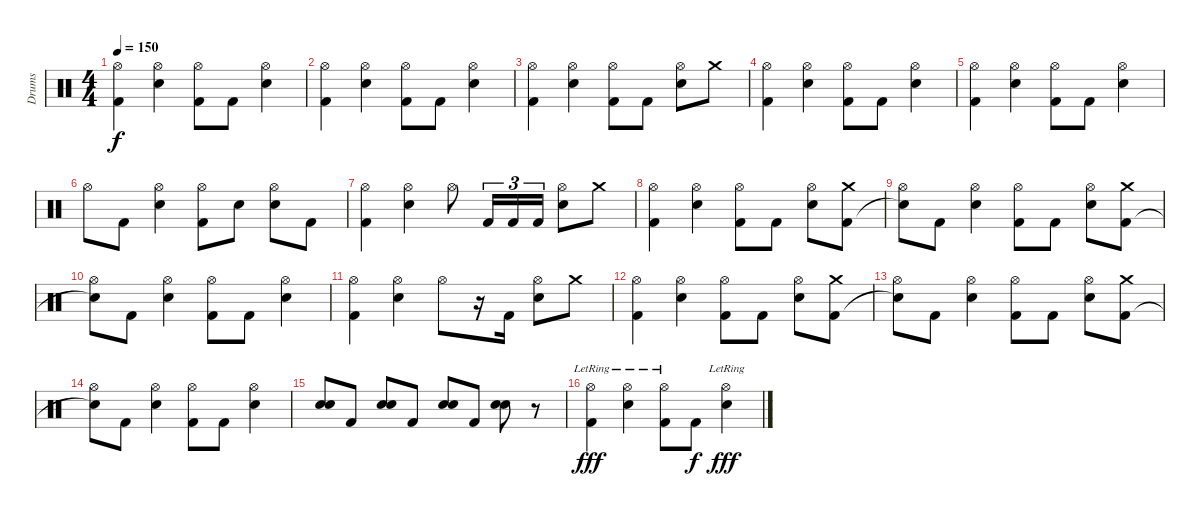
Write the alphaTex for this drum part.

\track ("Drums" "Drums") {instrument percussion}
\staff {score}
\articulation defaults
\ts (4 4)
\tempo 150
\clef neutral
\ks c
("Hi-Hat (open)" "Kick (hit) 2").4{dy f} ("Hi-Hat (open)" "Snare (hit) 2").4 ("Hi-Hat (open)" "Kick (hit) 2").8 "Kick (hit) 2".8 ("Hi-Hat (open)" "Snare (hit) 2").4 |
("Hi-Hat (open)" "Kick (hit) 2").4 ("Hi-Hat (open)" "Snare (hit) 2").4 ("Hi-Hat (open)" "Kick (hit) 2").8 "Kick (hit) 2".8 ("Hi-Hat (open)" "Snare (hit) 2").4 |
("Hi-Hat (open)" "Kick (hit) 2").4 ("Hi-Hat (open)" "Snare (hit) 2").4 ("Hi-Hat (open)" "Kick (hit) 2").8 "Kick (hit) 2".8 ("Hi-Hat (open)" "Snare (hit) 2").8 "Crash medium (hit)".8 |
("Hi-Hat (open)" "Kick (hit) 2").4 ("Hi-Hat (open)" "Snare (hit) 2").4 ("Hi-Hat (open)" "Kick (hit) 2").8 "Kick (hit) 2".8 ("Hi-Hat (open)" "Snare (hit) 2").4 |
("Hi-Hat (open)" "Kick (hit) 2").4 ("Hi-Hat (open)" "Snare (hit) 2").4 ("Hi-Hat (open)" "Kick (hit) 2").8 "Kick (hit) 2".8 ("Hi-Hat (open)" "Snare (hit) 2").4 |
"Hi-Hat (open)".8 "Kick (hit) 2".8 ("Hi-Hat (open)" "Snare (hit) 2").4 ("Hi-Hat (open)" "Kick (hit) 2").8 "Snare (hit) 2".8 ("Hi-Hat (open)" "Snare (hit) 2").8 "Kick (hit) 2".8 |
("Hi-Hat (open)" "Kick (hit) 2").4 ("Hi-Hat (open)" "Snare (hit) 2").4 "Hi-Hat (open)".8 "Kick (hit) 2".16{tu (3 2)} "Kick (hit) 2".16{tu (3 2)} "Kick (hit) 2".16{tu (3 2)} ("Hi-Hat (open)" "Snare (hit) 2").8 "Crash medium (hit)".8 |
("Hi-Hat (open)" "Kick (hit) 2").4 ("Hi-Hat (open)" "Snare (hit) 2").4 ("Hi-Hat (open)" "Kick (hit) 2").8 "Kick (hit) 2".8 ("Hi-Hat (open)" "Snare (hit) 2").8 ("Crash medium (hit)" "Kick (hit) 2").8 |
("Hi-Hat (open)" "Snare (hit)"{t}).8 "Kick (hit) 2".8 ("Hi-Hat (open)" "Snare (hit) 2").4 ("Hi-Hat (open)" "Kick (hit) 2").8 "Kick (hit) 2".8 ("Hi-Hat (open)" "Snare (hit) 2").8 ("Crash medium (hit)" "Kick (hit) 2").8 |
("Hi-Hat (open)" "Snare (hit)"{t}).8 "Kick (hit) 2".8 ("Hi-Hat (open)" "Snare (hit) 2").4 ("Hi-Hat (open)" "Kick (hit) 2").8 "Kick (hit) 2".8 ("Hi-Hat (open)" "Snare (hit) 2").4 |
("Hi-Hat (open)" "Kick (hit) 2").4 ("Hi-Hat (open)" "Snare (hit) 2").4 "Hi-Hat (open)".8 r.16 "Kick (hit) 2".16 ("Hi-Hat (open)" "Snare (hit) 2").8 "Crash medium (hit)".8 |
("Hi-Hat (open)" "Kick (hit) 2").4 ("Hi-Hat (open)" "Snare (hit) 2").4 ("Hi-Hat (open)" "Kick (hit) 2").8 "Kick (hit) 2".8 ("Hi-Hat (open)" "Snare (hit) 2").8 ("Crash medium (hit)" "Kick (hit) 2").8 |
("Hi-Hat (open)" "Snare (hit)"{t}).8 "Kick (hit) 2".8 ("Hi-Hat (open)" "Snare (hit) 2").4 ("Hi-Hat (open)" "Kick (hit) 2").8 "Kick (hit) 2".8 ("Hi-Hat (open)" "Snare (hit) 2").8 ("Crash medium (hit)" "Kick (hit) 2").8 |
("Hi-Hat (open)" "Snare (hit)"{t}).8 "Kick (hit) 2".8 ("Hi-Hat (open)" "Snare (hit) 2").4 ("Hi-Hat (open)" "Kick (hit) 2").8 "Kick (hit) 2".8 ("Hi-Hat (open)" "Snare (hit) 2").4 |
("Snare (hit) 2" "Snare (hit) 2").8{bd 120} "Kick (hit) 2".8 ("Snare (hit) 2" "Snare (hit) 2").8{bd 120} "Kick (hit) 2".8 ("Snare (hit) 2" "Snare (hit) 2").8{bd 120} "Kick (hit) 2".8 ("Snare (hit) 2" "Snare (hit) 2").8{bd 120} r.8 |
("Hi-Hat (open)"{lr} "Kick (hit) 2").4{dy fff} ("Hi-Hat (open)"{lr} "Snare (hit) 2").4 ("Hi-Hat (open)"{lr} "Kick (hit) 2").8 "Kick (hit) 2".8{dy f} ("Hi-Hat (open)"{lr} "Snare (hit) 2").4{dy fff}
